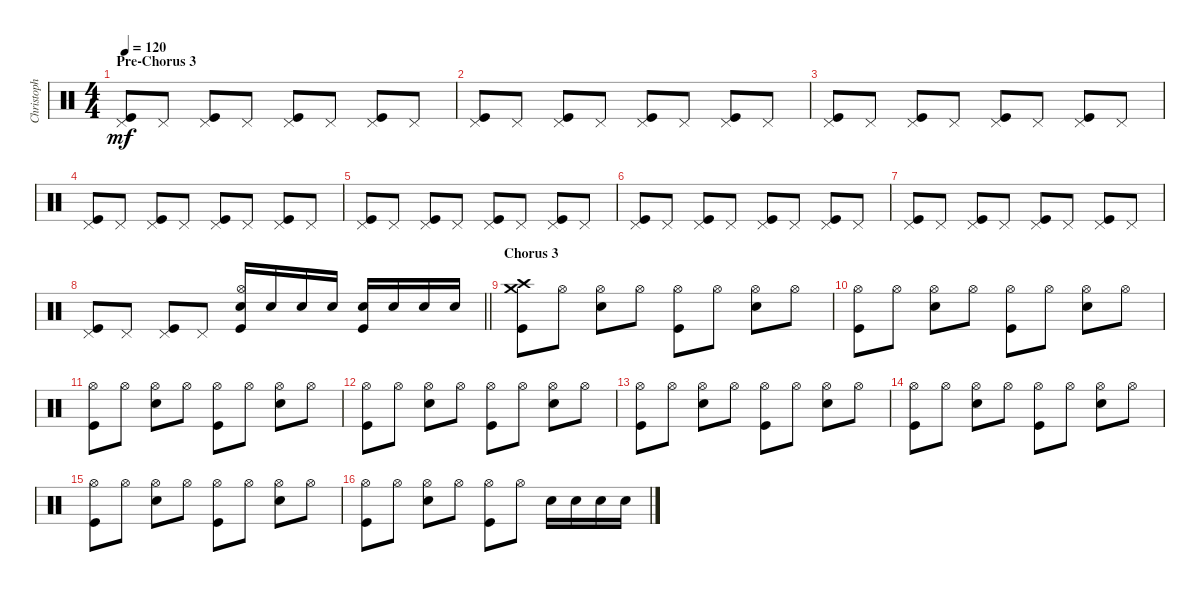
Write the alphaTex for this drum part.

\track ("Christoph Schneider" "Christoph ") {instrument percussion}
\staff {score}
\articulation defaults
\ts (4 4)
\section ("" "Pre-Chorus 3")
\tempo 120
\clef neutral
\ks c
("Kick (hit)" "Pedal Hi-Hat (hit)").8{dy mf} "Pedal Hi-Hat (hit)".8 ("Kick (hit)" "Pedal Hi-Hat (hit)").8 "Pedal Hi-Hat (hit)".8 ("Kick (hit)" "Pedal Hi-Hat (hit)").8 "Pedal Hi-Hat (hit)".8 ("Kick (hit)" "Pedal Hi-Hat (hit)").8 "Pedal Hi-Hat (hit)".8 |
("Kick (hit)" "Pedal Hi-Hat (hit)").8 "Pedal Hi-Hat (hit)".8 ("Kick (hit)" "Pedal Hi-Hat (hit)").8 "Pedal Hi-Hat (hit)".8 ("Kick (hit)" "Pedal Hi-Hat (hit)").8 "Pedal Hi-Hat (hit)".8 ("Kick (hit)" "Pedal Hi-Hat (hit)").8 "Pedal Hi-Hat (hit)".8 |
("Kick (hit)" "Pedal Hi-Hat (hit)").8 "Pedal Hi-Hat (hit)".8 ("Kick (hit)" "Pedal Hi-Hat (hit)").8 "Pedal Hi-Hat (hit)".8 ("Kick (hit)" "Pedal Hi-Hat (hit)").8 "Pedal Hi-Hat (hit)".8 ("Kick (hit)" "Pedal Hi-Hat (hit)").8 "Pedal Hi-Hat (hit)".8 |
("Kick (hit)" "Pedal Hi-Hat (hit)").8 "Pedal Hi-Hat (hit)".8 ("Kick (hit)" "Pedal Hi-Hat (hit)").8 "Pedal Hi-Hat (hit)".8 ("Kick (hit)" "Pedal Hi-Hat (hit)").8 "Pedal Hi-Hat (hit)".8 ("Kick (hit)" "Pedal Hi-Hat (hit)").8 "Pedal Hi-Hat (hit)".8 |
("Kick (hit)" "Pedal Hi-Hat (hit)").8 "Pedal Hi-Hat (hit)".8 ("Kick (hit)" "Pedal Hi-Hat (hit)").8 "Pedal Hi-Hat (hit)".8 ("Kick (hit)" "Pedal Hi-Hat (hit)").8 "Pedal Hi-Hat (hit)".8 ("Kick (hit)" "Pedal Hi-Hat (hit)").8 "Pedal Hi-Hat (hit)".8 |
("Kick (hit)" "Pedal Hi-Hat (hit)").8 "Pedal Hi-Hat (hit)".8 ("Kick (hit)" "Pedal Hi-Hat (hit)").8 "Pedal Hi-Hat (hit)".8 ("Kick (hit)" "Pedal Hi-Hat (hit)").8 "Pedal Hi-Hat (hit)".8 ("Kick (hit)" "Pedal Hi-Hat (hit)").8 "Pedal Hi-Hat (hit)".8 |
("Kick (hit)" "Pedal Hi-Hat (hit)").8 "Pedal Hi-Hat (hit)".8 ("Kick (hit)" "Pedal Hi-Hat (hit)").8 "Pedal Hi-Hat (hit)".8 ("Kick (hit)" "Pedal Hi-Hat (hit)").8 "Pedal Hi-Hat (hit)".8 ("Kick (hit)" "Pedal Hi-Hat (hit)").8 "Pedal Hi-Hat (hit)".8 |
\barLineRight lightlight
("Kick (hit)" "Pedal Hi-Hat (hit)").8 "Pedal Hi-Hat (hit)".8 ("Kick (hit)" "Pedal Hi-Hat (hit)").8 "Pedal Hi-Hat (hit)".8 ("Kick (hit)" "Hi-Hat (open)" "Snare (hit) 2").16 "Snare (hit) 2".16 "Snare (hit) 2".16 "Snare (hit) 2".16 ("Snare (hit) 2" "Kick (hit)").16 "Snare (hit) 2".16 "Snare (hit) 2".16 "Snare (hit) 2".16 |
\section ("" "Chorus 3")
("Kick (hit)" "Crash high (hit)" "Crash medium (hit)").8 "Hi-Hat (open)".8 ("Snare (hit) 2" "Hi-Hat (open)").8 "Hi-Hat (open)".8 ("Hi-Hat (open)" "Kick (hit)").8 "Hi-Hat (open)".8 ("Hi-Hat (open)" "Snare (hit) 2").8 "Hi-Hat (open)".8 |
("Kick (hit)" "Hi-Hat (open)").8 "Hi-Hat (open)".8 ("Snare (hit) 2" "Hi-Hat (open)").8 "Hi-Hat (open)".8 ("Hi-Hat (open)" "Kick (hit)").8 "Hi-Hat (open)".8 ("Hi-Hat (open)" "Snare (hit) 2").8 "Hi-Hat (open)".8 |
("Kick (hit)" "Hi-Hat (open)").8 "Hi-Hat (open)".8 ("Snare (hit) 2" "Hi-Hat (open)").8 "Hi-Hat (open)".8 ("Hi-Hat (open)" "Kick (hit)").8 "Hi-Hat (open)".8 ("Hi-Hat (open)" "Snare (hit) 2").8 "Hi-Hat (open)".8 |
("Kick (hit)" "Hi-Hat (open)").8 "Hi-Hat (open)".8 ("Snare (hit) 2" "Hi-Hat (open)").8 "Hi-Hat (open)".8 ("Hi-Hat (open)" "Kick (hit)").8 "Hi-Hat (open)".8 ("Hi-Hat (open)" "Snare (hit) 2").8 "Hi-Hat (open)".8 |
("Kick (hit)" "Hi-Hat (open)").8 "Hi-Hat (open)".8 ("Snare (hit) 2" "Hi-Hat (open)").8 "Hi-Hat (open)".8 ("Hi-Hat (open)" "Kick (hit)").8 "Hi-Hat (open)".8 ("Hi-Hat (open)" "Snare (hit) 2").8 "Hi-Hat (open)".8 |
("Kick (hit)" "Hi-Hat (open)").8 "Hi-Hat (open)".8 ("Snare (hit) 2" "Hi-Hat (open)").8 "Hi-Hat (open)".8 ("Hi-Hat (open)" "Kick (hit)").8 "Hi-Hat (open)".8 ("Hi-Hat (open)" "Snare (hit) 2").8 "Hi-Hat (open)".8 |
("Kick (hit)" "Hi-Hat (open)").8 "Hi-Hat (open)".8 ("Snare (hit) 2" "Hi-Hat (open)").8 "Hi-Hat (open)".8 ("Hi-Hat (open)" "Kick (hit)").8 "Hi-Hat (open)".8 ("Hi-Hat (open)" "Snare (hit) 2").8 "Hi-Hat (open)".8 |
("Kick (hit)" "Hi-Hat (open)").8 "Hi-Hat (open)".8 ("Hi-Hat (open)" "Snare (hit) 2").8 "Hi-Hat (open)".8 ("Kick (hit)" "Hi-Hat (open)").8 "Hi-Hat (open)".8 "Snare (hit) 2".16 "Snare (hit) 2".16 "Snare (hit) 2".16 "Snare (hit) 2".16
